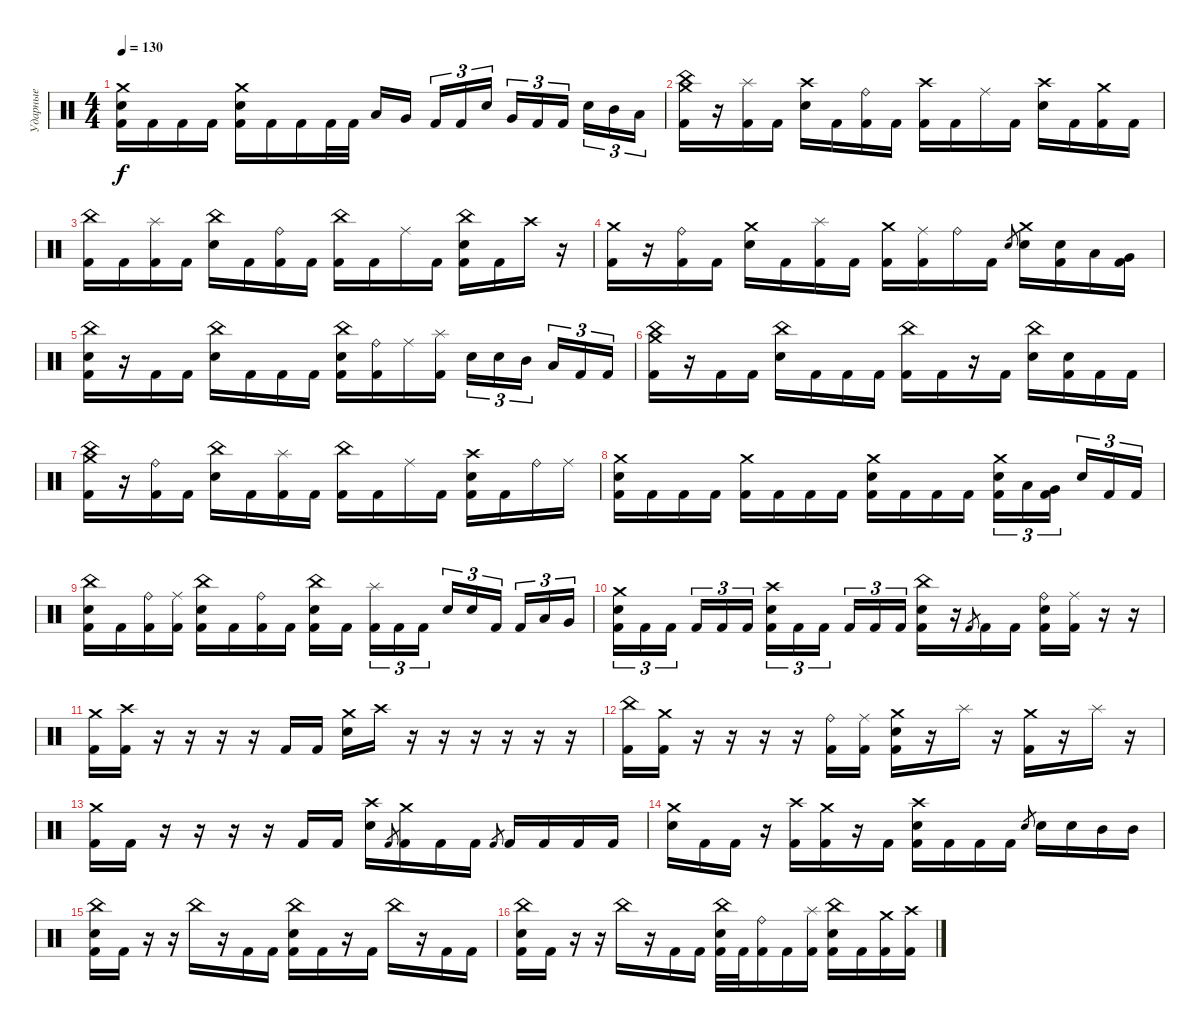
\track ("Ударные" "Ударные") {instrument percussion}
\staff {score}
\articulation defaults
\ts (4 4)
\tempo 130
\clef neutral
\ks c
("Crash medium (hit)" "Electric Snare (hit)" "Kick (hit) 2").16{dy f} "Kick (hit) 2".16 "Kick (hit) 2".16 "Kick (hit) 2".16 ("Crash medium (hit)" "Electric Snare (hit)" "Kick (hit) 2").16 "Kick (hit) 2".16 "Kick (hit) 2".16 "Kick (hit) 2".32 "Kick (hit) 2".32 "Low Tom (hit)".16 "Very Low Tom (hit)".16{beam splitsecondary} "Kick (hit) 2".16{tu (3 2)} "Kick (hit) 2".16{tu (3 2)} "Electric Snare (hit)".16{tu (3 2)} "Very Low Tom (hit)".16{tu (3 2)} "Kick (hit) 2".16{tu (3 2)} "Kick (hit) 2".16{tu (3 2) beam splitsecondary} "Electric Snare (hit)".16{tu (3 2)} "Mid Tom (hit)".16{tu (3 2)} "Low Tom (hit)".16{tu (3 2)} |
("Crash medium (hit)" "China (hit)" "Kick (hit) 2").16 r.16 ("Splash (hit)" "Kick (hit) 2").16 "Kick (hit) 2".16 ("Crash high (hit)" "Electric Snare (hit)").16 "Kick (hit) 2".16 ("Ride (bell)" "Kick (hit) 2").16 "Kick (hit) 2".16 ("Crash high (hit)" "Kick (hit) 2").16 "Kick (hit) 2".16 "Ride (middle)".16 "Kick (hit) 2".16 ("Crash high (hit)" "Electric Snare (hit)").16 "Kick (hit) 2".16 ("Crash medium (hit)" "Kick (hit) 2").16 "Kick (hit) 2".16 |
("China (hit)" "Kick (hit) 2").16 "Kick (hit) 2".16 ("Splash (hit)" "Kick (hit) 2").16 "Kick (hit) 2".16 ("China (hit)" "Electric Snare (hit)").16 "Kick (hit) 2".16 ("Ride (bell)" "Kick (hit) 2").16 "Kick (hit) 2".16 ("China (hit)" "Kick (hit) 2").16 "Kick (hit) 2".16 "Ride (middle)".16 "Kick (hit) 2".16 ("China (hit)" "Electric Snare (hit)" "Kick (hit) 2").16 "Kick (hit) 2".16 "Crash high (hit)".16 r.16 |
("Crash medium (hit)" "Kick (hit) 2").16 r.16 ("Ride (bell)" "Kick (hit) 2").16 "Kick (hit) 2".16 ("Crash medium (hit)" "Electric Snare (hit)").16 "Kick (hit) 2".16 ("Splash (hit)" "Kick (hit) 2").16 "Kick (hit) 2".16 ("Crash medium (hit)" "Kick (hit) 2").16 ("Ride (middle)" "Kick (hit) 2").16 "Ride (bell)".16 "Kick (hit) 2".16 "Electric Snare (hit)".8{gr} ("Crash medium (hit)" "Electric Snare (hit)").16 ("Electric Snare (hit)" "Kick (hit) 2").16 "Low Tom (hit)".16 ("Very Low Tom (hit)" "Kick (hit) 2").16 |
("China (hit)" "Electric Snare (hit)" "Kick (hit) 2").16 r.16 "Kick (hit) 2".16 "Kick (hit) 2".16 ("China (hit)" "Electric Snare (hit)").16 "Kick (hit) 2".16 "Kick (hit) 2".16 "Kick (hit) 2".16 ("China (hit)" "Electric Snare (hit)" "Kick (hit) 2").16 ("Ride (bell)" "Kick (hit) 2").16 "Ride (middle)".16 ("Splash (hit)" "Kick (hit) 2").16 "Electric Snare (hit)".16{tu (3 2)} "Electric Snare (hit)".16{tu (3 2)} "Mid Tom (hit)".16{tu (3 2) beam splitsecondary} "Low Tom (hit)".16{tu (3 2)} "Kick (hit) 2".16{tu (3 2)} "Kick (hit) 2".16{tu (3 2)} |
("Crash medium (hit)" "China (hit)" "Kick (hit) 2").16 r.16 "Kick (hit) 2".16 "Kick (hit) 2".16 ("China (hit)" "Electric Snare (hit)").16 "Kick (hit) 2".16 "Kick (hit) 2".16 "Kick (hit) 2".16 ("China (hit)" "Kick (hit) 2").16 "Kick (hit) 2".16 r.16 "Kick (hit) 2".16 ("China (hit)" "Electric Snare (hit)").16 ("Electric Snare (hit)" "Kick (hit) 2").16 "Kick (hit) 2".16 "Kick (hit) 2".16 |
("China (hit)" "Crash medium (hit)" "Kick (hit) 2").16 r.16 ("Ride (bell)" "Kick (hit) 2").16 "Kick (hit) 2".16 ("China (hit)" "Electric Snare (hit)").16 "Kick (hit) 2".16 ("Splash (hit)" "Kick (hit) 2").16 "Kick (hit) 2".16 ("China (hit)" "Kick (hit) 2").16 "Kick (hit) 2".16 "Ride (middle)".16 "Kick (hit) 2".16 ("Crash high (hit)" "Electric Snare (hit)" "Kick (hit) 2").16 "Kick (hit) 2".16 "Ride (bell)".16 "Ride (middle)".16 |
("Crash medium (hit)" "Electric Snare (hit)" "Kick (hit) 2").16 "Kick (hit) 2".16 "Kick (hit) 2".16 "Kick (hit) 2".16 ("Crash medium (hit)" "Kick (hit) 2").16 "Kick (hit) 2".16 "Kick (hit) 2".16 "Kick (hit) 2".16 ("Crash medium (hit)" "Electric Snare (hit)" "Kick (hit) 2").16 "Kick (hit) 2".16 "Kick (hit) 2".16 "Kick (hit) 2".16 ("Crash medium (hit)" "Electric Snare (hit)" "Kick (hit) 2").16{tu (3 2)} "Low Tom (hit)".16{tu (3 2)} ("Very Low Tom (hit)" "Kick (hit) 2").16{tu (3 2) beam splitsecondary} "Electric Snare (hit)".16{tu (3 2)} "Kick (hit) 2".16{tu (3 2)} "Kick (hit) 2".16{tu (3 2)} |
("China (hit)" "Electric Snare (hit)" "Kick (hit) 2").16 "Kick (hit) 2".16 ("Ride (bell)" "Kick (hit) 2").16 ("Ride (middle)" "Kick (hit) 2").16 ("China (hit)" "Electric Snare (hit)" "Kick (hit) 2").16 "Kick (hit) 2".16 ("Ride (bell)" "Kick (hit) 2").16 "Kick (hit) 2".16 ("China (hit)" "Electric Snare (hit)" "Kick (hit) 2").16 "Kick (hit) 2".16{beam splitsecondary} ("Splash (hit)" "Kick (hit) 2").16{tu (3 2)} "Kick (hit) 2".16{tu (3 2)} "Kick (hit) 2".16{tu (3 2)} "Electric Snare (hit)".16{tu (3 2)} "Electric Snare (hit)".16{tu (3 2)} "Kick (hit) 2".16{tu (3 2) beam splitsecondary} "Kick (hit) 2".16{tu (3 2)} "Low Tom (hit)".16{tu (3 2)} "Very Low Tom (hit)".16{tu (3 2)} |
("Crash medium (hit)" "Electric Snare (hit)" "Kick (hit) 2").16{tu (3 2)} "Kick (hit) 2".16{tu (3 2)} "Kick (hit) 2".16{tu (3 2) beam splitsecondary} "Kick (hit) 2".16{tu (3 2)} "Kick (hit) 2".16{tu (3 2)} "Kick (hit) 2".16{tu (3 2)} ("Crash high (hit)" "Electric Snare (hit)" "Kick (hit) 2").16{tu (3 2)} "Kick (hit) 2".16{tu (3 2)} "Kick (hit) 2".16{tu (3 2) beam splitsecondary} "Kick (hit) 2".16{tu (3 2)} "Kick (hit) 2".16{tu (3 2)} "Kick (hit) 2".16{tu (3 2)} ("China (hit)" "Electric Snare (hit)" "Kick (hit) 2").16 r.16 "Kick (hit) 2".8{gr} "Kick (hit) 2".16 "Kick (hit) 2".16 ("Ride (bell)" "Electric Snare (hit)" "Kick (hit) 2").16 ("Ride (middle)" "Kick (hit) 2").16 r.16 r.16 |
("Crash medium (hit)" "Kick (hit) 2").16 ("Crash high (hit)" "Kick (hit) 2").16 r.16 r.16 r.16 r.16 "Kick (hit) 2".16 "Kick (hit) 2".16 ("Crash medium (hit)" "Electric Snare (hit)").16 "Crash high (hit)".16 r.16 r.16 r.16 r.16 r.16 r.16 |
("China (hit)" "Kick (hit) 2").16 ("Crash medium (hit)" "Kick (hit) 2").16 r.16 r.16 r.16 r.16 ("Ride (bell)" "Kick (hit) 2").16 ("Ride (middle)" "Kick (hit) 2").16 ("Crash medium (hit)" "Electric Snare (hit)" "Kick (hit) 2").16 r.16 "Splash (hit)".16 r.16 ("Crash medium (hit)" "Kick (hit) 2").16 r.16 "Splash (hit)".16 r.16 |
("Crash medium (hit)" "Kick (hit) 2").16 "Kick (hit) 2".16 r.16 r.16 r.16 r.16 "Kick (hit) 2".16 "Kick (hit) 2".16 ("Crash high (hit)" "Electric Snare (hit)").16 "Kick (hit) 2".8{gr} ("Crash medium (hit)" "Kick (hit) 2").16 "Kick (hit) 2".16 "Kick (hit) 2".16 "Kick (hit) 2".8{gr} "Kick (hit) 2".16 "Kick (hit) 2".16 "Kick (hit) 2".16 "Kick (hit) 2".16 |
("Crash medium (hit)" "Electric Snare (hit)").16 "Kick (hit) 2".16 "Kick (hit) 2".16 r.16 ("Crash high (hit)" "Kick (hit) 2").16 ("Crash medium (hit)" "Kick (hit) 2").16 r.16 "Kick (hit) 2".16 ("Crash high (hit)" "Electric Snare (hit)" "Kick (hit) 2").16 "Kick (hit) 2".16 "Kick (hit) 2".16 "Kick (hit) 2".16 "Electric Snare (hit)".8{gr} "Electric Snare (hit)".16 "Electric Snare (hit)".16 "Mid Tom (hit)".16 "Mid Tom (hit)".16 |
("China (hit)" "Electric Snare (hit)" "Kick (hit) 2").16 "Kick (hit) 2".16 r.16 r.16 "China (hit)".16 r.16 "Kick (hit) 2".16 "Kick (hit) 2".16 ("China (hit)" "Electric Snare (hit)" "Kick (hit) 2").16 "Kick (hit) 2".16 r.16 "Kick (hit) 2".16 "China (hit)".16 r.16 "Kick (hit) 2".16 "Kick (hit) 2".16 |
("China (hit)" "Electric Snare (hit)" "Kick (hit) 2").16 "Kick (hit) 2".16 r.16 r.16 "China (hit)".16 r.16 "Kick (hit) 2".16 "Kick (hit) 2".16 ("China (hit)" "Electric Snare (hit)" "Kick (hit) 2").32 "Kick (hit) 2".32 ("Ride (bell)" "Kick (hit) 2").16 "Kick (hit) 2".16 ("Splash (hit)" "Kick (hit) 2").16 ("China (hit)" "Electric Snare (hit)" "Kick (hit) 2").16 "Kick (hit) 2".16 ("Crash medium (hit)" "Kick (hit) 2").16 ("Crash high (hit)" "Kick (hit) 2").16
